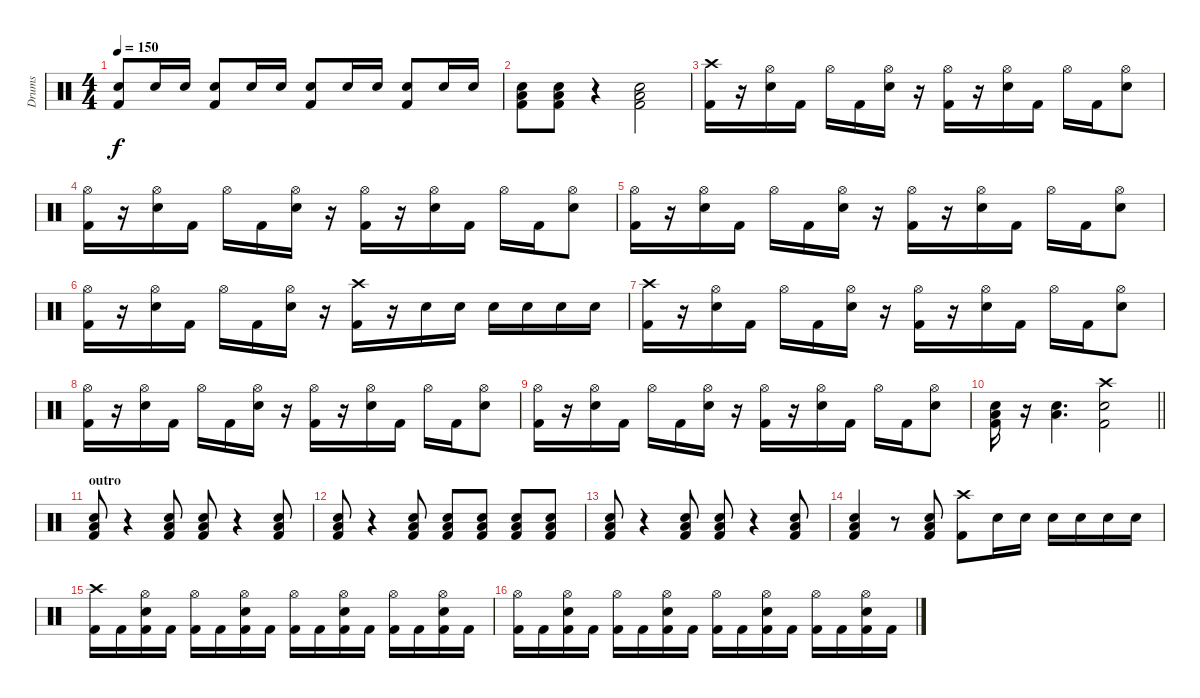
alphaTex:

\track ("Drums" "Drums") {instrument percussion}
\staff {score}
\articulation defaults
\ts (4 4)
\tempo 150
\clef neutral
\ks c
("Electric Snare (hit)" "Kick (hit) 2").8{dy f} "Electric Snare (hit)".16 "Electric Snare (hit)".16 ("Electric Snare (hit)" "Kick (hit) 2").8 "Electric Snare (hit)".16 "Electric Snare (hit)".16 ("Electric Snare (hit)" "Kick (hit) 2").8 "Electric Snare (hit)".16 "Electric Snare (hit)".16 ("Electric Snare (hit)" "Kick (hit) 2").8 "Electric Snare (hit)".16 "Electric Snare (hit)".16 |
("Electric Snare (hit)" "Low Floor Tom (hit)" "Kick (hit) 2").8 ("Electric Snare (hit)" "Low Floor Tom (hit)" "Kick (hit) 2").8 r.4 ("Electric Snare (hit)" "Low Floor Tom (hit)" "Kick (hit) 2").2 |
("Crash high (hit)" "Kick (hit) 2").16 r.16 ("Hi-Hat (open)" "Electric Snare (hit)").16 "Kick (hit) 2".16 "Hi-Hat (open)".16 "Kick (hit) 2".16 ("Hi-Hat (open)" "Electric Snare (hit)").16 r.16 ("Hi-Hat (open)" "Kick (hit) 2").16 r.16 ("Hi-Hat (open)" "Electric Snare (hit)").16 "Kick (hit) 2".16 "Hi-Hat (open)".16 "Kick (hit) 2".16 ("Hi-Hat (open)" "Electric Snare (hit)").8 |
("Hi-Hat (open)" "Kick (hit) 2").16 r.16 ("Hi-Hat (open)" "Electric Snare (hit)").16 "Kick (hit) 2".16 "Hi-Hat (open)".16 "Kick (hit) 2".16 ("Hi-Hat (open)" "Electric Snare (hit)").16 r.16 ("Hi-Hat (open)" "Kick (hit) 2").16 r.16 ("Hi-Hat (open)" "Electric Snare (hit)").16 "Kick (hit) 2".16 "Hi-Hat (open)".16 "Kick (hit) 2".16 ("Hi-Hat (open)" "Electric Snare (hit)").8 |
("Hi-Hat (open)" "Kick (hit) 2").16 r.16 ("Hi-Hat (open)" "Electric Snare (hit)").16 "Kick (hit) 2".16 "Hi-Hat (open)".16 "Kick (hit) 2".16 ("Hi-Hat (open)" "Electric Snare (hit)").16 r.16 ("Hi-Hat (open)" "Kick (hit) 2").16 r.16 ("Hi-Hat (open)" "Electric Snare (hit)").16 "Kick (hit) 2".16 "Hi-Hat (open)".16 "Kick (hit) 2".16 ("Hi-Hat (open)" "Electric Snare (hit)").8 |
("Hi-Hat (open)" "Kick (hit) 2").16 r.16 ("Hi-Hat (open)" "Electric Snare (hit)").16 "Kick (hit) 2".16 "Hi-Hat (open)".16 "Kick (hit) 2".16 ("Hi-Hat (open)" "Electric Snare (hit)").16 r.16 ("Crash high (hit)" "Kick (hit) 2").16 r.16 "Electric Snare (hit)".16 "Electric Snare (hit)".16 "Electric Snare (hit)".16 "Electric Snare (hit)".16 "Electric Snare (hit)".16 "Electric Snare (hit)".16 |
("Crash high (hit)" "Kick (hit) 2").16 r.16 ("Hi-Hat (open)" "Electric Snare (hit)").16 "Kick (hit) 2".16 "Hi-Hat (open)".16 "Kick (hit) 2".16 ("Hi-Hat (open)" "Electric Snare (hit)").16 r.16 ("Hi-Hat (open)" "Kick (hit) 2").16 r.16 ("Hi-Hat (open)" "Electric Snare (hit)").16 "Kick (hit) 2".16 "Hi-Hat (open)".16 "Kick (hit) 2".16 ("Hi-Hat (open)" "Electric Snare (hit)").8 |
("Hi-Hat (open)" "Kick (hit) 2").16 r.16 ("Hi-Hat (open)" "Electric Snare (hit)").16 "Kick (hit) 2".16 "Hi-Hat (open)".16 "Kick (hit) 2".16 ("Hi-Hat (open)" "Electric Snare (hit)").16 r.16 ("Hi-Hat (open)" "Kick (hit) 2").16 r.16 ("Hi-Hat (open)" "Electric Snare (hit)").16 "Kick (hit) 2".16 "Hi-Hat (open)".16 "Kick (hit) 2".16 ("Hi-Hat (open)" "Electric Snare (hit)").8 |
("Hi-Hat (open)" "Kick (hit) 2").16 r.16 ("Hi-Hat (open)" "Electric Snare (hit)").16 "Kick (hit) 2".16 "Hi-Hat (open)".16 "Kick (hit) 2".16 ("Hi-Hat (open)" "Electric Snare (hit)").16 r.16 ("Hi-Hat (open)" "Kick (hit) 2").16 r.16 ("Hi-Hat (open)" "Electric Snare (hit)").16 "Kick (hit) 2".16 "Hi-Hat (open)".16 "Kick (hit) 2".16 ("Hi-Hat (open)" "Electric Snare (hit)").8 |
\barLineRight lightlight
("Electric Snare (hit)" "Low Floor Tom (hit)" "Kick (hit) 2").16 r.16 ("Electric Snare (hit)" "Low Floor Tom (hit)").4{d} ("Crash high (hit)" "Electric Snare (hit)" "Kick (hit) 2").2 |
\section ("" "outro")
("Low Tom (hit)" "Snare (hit) 2" "Kick (hit) 2").8 r.4 ("Low Tom (hit)" "Snare (hit) 2" "Kick (hit) 2").8 ("Low Tom (hit)" "Snare (hit) 2" "Kick (hit) 2").8 r.4 ("Low Tom (hit)" "Snare (hit) 2" "Kick (hit) 2").8 |
("Low Tom (hit)" "Snare (hit) 2" "Kick (hit) 2").8 r.4 ("Low Tom (hit)" "Snare (hit) 2" "Kick (hit) 2").8 ("Low Tom (hit)" "Snare (hit) 2" "Kick (hit) 2").8 ("Low Tom (hit)" "Snare (hit) 2" "Kick (hit) 2").8 ("Low Tom (hit)" "Snare (hit) 2" "Kick (hit) 2").8 ("Low Tom (hit)" "Snare (hit) 2" "Kick (hit) 2").8 |
("Low Tom (hit)" "Snare (hit) 2" "Kick (hit) 2").8 r.4 ("Low Tom (hit)" "Snare (hit) 2" "Kick (hit) 2").8 ("Low Tom (hit)" "Snare (hit) 2" "Kick (hit) 2").8 r.4 ("Low Tom (hit)" "Snare (hit) 2" "Kick (hit) 2").8 |
("Low Tom (hit)" "Snare (hit) 2" "Kick (hit) 2").4 r.8 ("Low Tom (hit)" "Snare (hit) 2" "Kick (hit) 2").8 ("Crash high (hit)" "Kick (hit) 2").8 "Snare (hit) 2".16 "Snare (hit) 2".16 "Snare (hit) 2".16 "Snare (hit) 2".16 "Snare (hit) 2".16 "Snare (hit) 2".16 |
("Crash high (hit)" "Kick (hit) 2").16 "Kick (hit) 2".16 ("Hi-Hat (open)" "Electric Snare (hit)" "Kick (hit) 2").16 "Kick (hit) 2".16 ("Hi-Hat (open)" "Kick (hit) 2").16 "Kick (hit) 2".16 ("Hi-Hat (open)" "Electric Snare (hit)" "Kick (hit) 2").16 "Kick (hit) 2".16 ("Hi-Hat (open)" "Kick (hit) 2").16 "Kick (hit) 2".16 ("Hi-Hat (open)" "Electric Snare (hit)" "Kick (hit) 2").16 "Kick (hit) 2".16 ("Hi-Hat (open)" "Kick (hit) 2").16 "Kick (hit) 2".16 ("Hi-Hat (open)" "Electric Snare (hit)" "Kick (hit) 2").16 "Kick (hit) 2".16 |
("Hi-Hat (open)" "Kick (hit) 2").16 "Kick (hit) 2".16 ("Hi-Hat (open)" "Electric Snare (hit)" "Kick (hit) 2").16 "Kick (hit) 2".16 ("Hi-Hat (open)" "Kick (hit) 2").16 "Kick (hit) 2".16 ("Hi-Hat (open)" "Electric Snare (hit)" "Kick (hit) 2").16 "Kick (hit) 2".16 ("Hi-Hat (open)" "Kick (hit) 2").16 "Kick (hit) 2".16 ("Hi-Hat (open)" "Electric Snare (hit)" "Kick (hit) 2").16 "Kick (hit) 2".16 ("Hi-Hat (open)" "Kick (hit) 2").16 "Kick (hit) 2".16 ("Hi-Hat (open)" "Electric Snare (hit)" "Kick (hit) 2").16 "Kick (hit) 2".16
